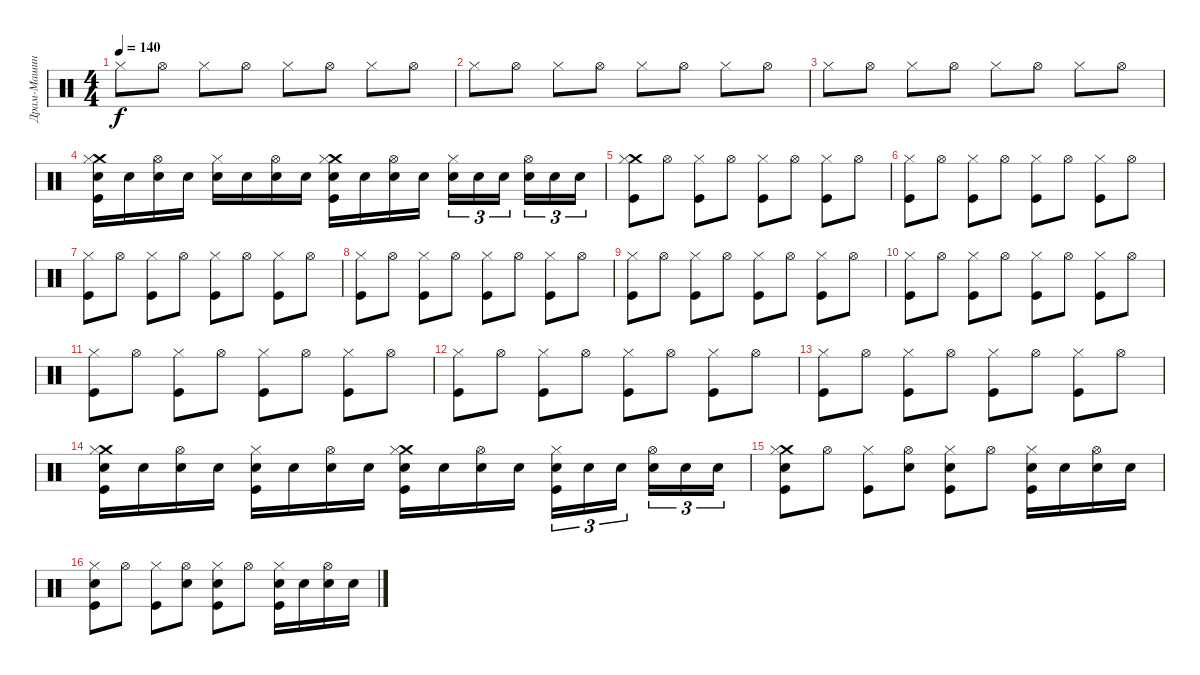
\track ("Драм-Машина" "Драм-Машин") {instrument percussion}
\staff {score}
\articulation defaults
\ts (4 4)
\tempo 140
\clef neutral
\ks c "Hi-Hat (closed)".8{dy f} "Hi-Hat (open)".8 "Hi-Hat (closed)".8 "Hi-Hat (open)".8 "Hi-Hat (closed)".8 "Hi-Hat (open)".8 "Hi-Hat (closed)".8 "Hi-Hat (open)".8
|
"Hi-Hat (closed)".8 "Hi-Hat (open)".8 "Hi-Hat (closed)".8 "Hi-Hat (open)".8 "Hi-Hat (closed)".8 "Hi-Hat (open)".8 "Hi-Hat (closed)".8 "Hi-Hat (open)".8 |
"Hi-Hat (closed)".8 "Hi-Hat (open)".8 "Hi-Hat (closed)".8 "Hi-Hat (open)".8 "Hi-Hat (closed)".8 "Hi-Hat (open)".8 "Hi-Hat (closed)".8 "Hi-Hat (open)".8 |
("Kick (hit)" "Crash medium (hit)" "Snare (hit) 2" "Hi-Hat (closed)").16 "Snare (hit) 2".16 ("Snare (hit) 2" "Hi-Hat (open)").16 "Snare (hit) 2".16 ("Snare (hit) 2" "Hi-Hat (closed)").16 "Snare (hit) 2".16 ("Snare (hit) 2" "Hi-Hat (open)").16 "Snare (hit) 2".16 ("Kick (hit)" "Crash medium (hit)" "Snare (hit) 2" "Hi-Hat (closed)").16 "Snare (hit) 2".16 ("Snare (hit) 2" "Hi-Hat (open)").16 "Snare (hit) 2".16 ("Snare (hit) 2" "Hi-Hat (closed)").16{tu (3 2)} "Snare (hit) 2".16{tu (3 2)} "Snare (hit) 2".16{tu (3 2) beam splitsecondary} ("Snare (hit) 2" "Hi-Hat (open)").16{tu (3 2)} "Snare (hit) 2".16{tu (3 2)} "Snare (hit) 2".16{tu (3 2)} |
("Crash medium (hit)" "Hi-Hat (closed)" "Kick (hit)").8 "Hi-Hat (open)".8 ("Hi-Hat (closed)" "Kick (hit)").8 "Hi-Hat (open)".8 ("Hi-Hat (closed)" "Kick (hit)").8 "Hi-Hat (open)".8 ("Hi-Hat (closed)" "Kick (hit)").8 "Hi-Hat (open)".8 |
("Hi-Hat (closed)" "Kick (hit)").8 "Hi-Hat (open)".8 ("Hi-Hat (closed)" "Kick (hit)").8 "Hi-Hat (open)".8 ("Hi-Hat (closed)" "Kick (hit)").8 "Hi-Hat (open)".8 ("Hi-Hat (closed)" "Kick (hit)").8 "Hi-Hat (open)".8 |
("Hi-Hat (closed)" "Kick (hit)").8 "Hi-Hat (open)".8 ("Hi-Hat (closed)" "Kick (hit)").8 "Hi-Hat (open)".8 ("Hi-Hat (closed)" "Kick (hit)").8 "Hi-Hat (open)".8 ("Hi-Hat (closed)" "Kick (hit)").8 "Hi-Hat (open)".8 |
("Hi-Hat (closed)" "Kick (hit)").8 "Hi-Hat (open)".8 ("Hi-Hat (closed)" "Kick (hit)").8 "Hi-Hat (open)".8 ("Hi-Hat (closed)" "Kick (hit)").8 "Hi-Hat (open)".8 ("Hi-Hat (closed)" "Kick (hit)").8 "Hi-Hat (open)".8 |
("Hi-Hat (closed)" "Kick (hit)").8 "Hi-Hat (open)".8 ("Hi-Hat (closed)" "Kick (hit)").8 "Hi-Hat (open)".8 ("Hi-Hat (closed)" "Kick (hit)").8 "Hi-Hat (open)".8 ("Hi-Hat (closed)" "Kick (hit)").8 "Hi-Hat (open)".8 |
("Hi-Hat (closed)" "Kick (hit)").8 "Hi-Hat (open)".8 ("Hi-Hat (closed)" "Kick (hit)").8 "Hi-Hat (open)".8 ("Hi-Hat (closed)" "Kick (hit)").8 "Hi-Hat (open)".8 ("Hi-Hat (closed)" "Kick (hit)").8 "Hi-Hat (open)".8 |
("Hi-Hat (closed)" "Kick (hit)").8 "Hi-Hat (open)".8 ("Hi-Hat (closed)" "Kick (hit)").8 "Hi-Hat (open)".8 ("Hi-Hat (closed)" "Kick (hit)").8 "Hi-Hat (open)".8 ("Hi-Hat (closed)" "Kick (hit)").8 "Hi-Hat (open)".8 |
("Hi-Hat (closed)" "Kick (hit)").8 "Hi-Hat (open)".8 ("Hi-Hat (closed)" "Kick (hit)").8 "Hi-Hat (open)".8 ("Hi-Hat (closed)" "Kick (hit)").8 "Hi-Hat (open)".8 ("Hi-Hat (closed)" "Kick (hit)").8 "Hi-Hat (open)".8 |
("Hi-Hat (closed)" "Kick (hit)").8 "Hi-Hat (open)".8 ("Hi-Hat (closed)" "Kick (hit)").8 "Hi-Hat (open)".8 ("Hi-Hat (closed)" "Kick (hit)").8 "Hi-Hat (open)".8 ("Hi-Hat (closed)" "Kick (hit)").8 "Hi-Hat (open)".8 |
("Crash medium (hit)" "Hi-Hat (closed)" "Kick (hit)" "Snare (hit) 2").16 "Snare (hit) 2".16 ("Hi-Hat (open)" "Snare (hit) 2").16 "Snare (hit) 2".16 ("Hi-Hat (closed)" "Kick (hit)" "Snare (hit) 2").16 "Snare (hit) 2".16 ("Hi-Hat (open)" "Snare (hit) 2").16 "Snare (hit) 2".16 ("Crash medium (hit)" "Hi-Hat (closed)" "Kick (hit)" "Snare (hit) 2").16 "Snare (hit) 2".16 ("Hi-Hat (open)" "Snare (hit) 2").16 "Snare (hit) 2".16 ("Hi-Hat (closed)" "Kick (hit)" "Snare (hit) 2").16{tu (3 2)} "Snare (hit) 2".16{tu (3 2)} "Snare (hit) 2".16{tu (3 2) beam splitsecondary} ("Hi-Hat (open)" "Snare (hit) 2").16{tu (3 2)} "Snare (hit) 2".16{tu (3 2)} "Snare (hit) 2".16{tu (3 2)} |
("Crash medium (hit)" "Hi-Hat (closed)" "Kick (hit)" "Snare (hit) 2").8 "Hi-Hat (open)".8 ("Hi-Hat (closed)" "Kick (hit)").8 ("Hi-Hat (open)" "Snare (hit) 2").8 ("Hi-Hat (closed)" "Kick (hit)" "Snare (hit) 2").8 "Hi-Hat (open)".8 ("Hi-Hat (closed)" "Kick (hit)" "Snare (hit) 2").16 "Snare (hit) 2".16 ("Hi-Hat (open)" "Snare (hit) 2").16 "Snare (hit) 2".16 |
("Hi-Hat (closed)" "Kick (hit)" "Snare (hit) 2").8 "Hi-Hat (open)".8 ("Hi-Hat (closed)" "Kick (hit)").8 ("Hi-Hat (open)" "Snare (hit) 2").8 ("Hi-Hat (closed)" "Kick (hit)" "Snare (hit) 2").8 "Hi-Hat (open)".8 ("Hi-Hat (closed)" "Kick (hit)" "Snare (hit) 2").16 "Snare (hit) 2".16 ("Hi-Hat (open)" "Snare (hit) 2").16 "Snare (hit) 2".16
